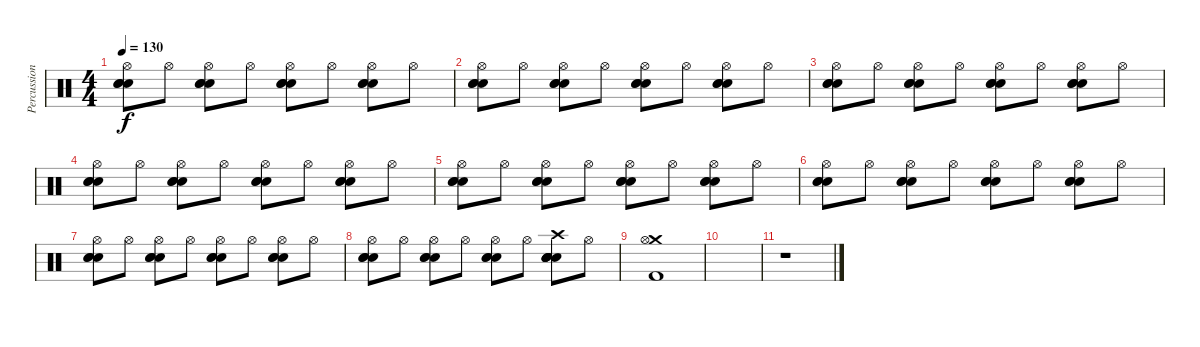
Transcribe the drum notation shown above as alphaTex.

\track ("Percussion" "Percussion") {instrument percussion}
\staff {score}
\articulation defaults
\ts (4 4)
\tempo 130
\clef neutral
\ks c
("Hi-Hat (open)" "Electric Snare (hit)" "Electric Snare (hit)" "Electric Snare (hit)").8{dy f} "Hi-Hat (open)".8 ("Hi-Hat (open)" "Electric Snare (hit)" "Electric Snare (hit)" "Electric Snare (hit)").8 "Hi-Hat (open)".8 ("Hi-Hat (open)" "Electric Snare (hit)" "Electric Snare (hit)" "Electric Snare (hit)").8 "Hi-Hat (open)".8 ("Hi-Hat (open)" "Electric Snare (hit)" "Electric Snare (hit)" "Electric Snare (hit)").8 "Hi-Hat (open)".8 |
("Hi-Hat (open)" "Electric Snare (hit)" "Electric Snare (hit)" "Electric Snare (hit)").8 "Hi-Hat (open)".8 ("Hi-Hat (open)" "Electric Snare (hit)" "Electric Snare (hit)" "Electric Snare (hit)").8 "Hi-Hat (open)".8 ("Hi-Hat (open)" "Electric Snare (hit)" "Electric Snare (hit)" "Electric Snare (hit)").8 "Hi-Hat (open)".8 ("Hi-Hat (open)" "Electric Snare (hit)" "Electric Snare (hit)" "Electric Snare (hit)").8 "Hi-Hat (open)".8 |
("Hi-Hat (open)" "Electric Snare (hit)" "Electric Snare (hit)" "Electric Snare (hit)").8 "Hi-Hat (open)".8 ("Hi-Hat (open)" "Electric Snare (hit)" "Electric Snare (hit)" "Electric Snare (hit)").8 "Hi-Hat (open)".8 ("Hi-Hat (open)" "Electric Snare (hit)" "Electric Snare (hit)" "Electric Snare (hit)").8 "Hi-Hat (open)".8 ("Hi-Hat (open)" "Electric Snare (hit)" "Electric Snare (hit)" "Electric Snare (hit)").8 "Hi-Hat (open)".8 |
("Hi-Hat (open)" "Electric Snare (hit)" "Electric Snare (hit)" "Electric Snare (hit)").8 "Hi-Hat (open)".8 ("Hi-Hat (open)" "Electric Snare (hit)" "Electric Snare (hit)" "Electric Snare (hit)").8 "Hi-Hat (open)".8 ("Hi-Hat (open)" "Electric Snare (hit)" "Electric Snare (hit)" "Electric Snare (hit)").8 "Hi-Hat (open)".8 ("Hi-Hat (open)" "Electric Snare (hit)" "Electric Snare (hit)" "Electric Snare (hit)").8 "Hi-Hat (open)".8 |
("Hi-Hat (open)" "Electric Snare (hit)" "Electric Snare (hit)" "Electric Snare (hit)").8 "Hi-Hat (open)".8 ("Hi-Hat (open)" "Electric Snare (hit)" "Electric Snare (hit)" "Electric Snare (hit)").8 "Hi-Hat (open)".8 ("Hi-Hat (open)" "Electric Snare (hit)" "Electric Snare (hit)" "Electric Snare (hit)").8 "Hi-Hat (open)".8 ("Hi-Hat (open)" "Electric Snare (hit)" "Electric Snare (hit)" "Electric Snare (hit)").8 "Hi-Hat (open)".8 |
("Hi-Hat (open)" "Electric Snare (hit)" "Electric Snare (hit)" "Electric Snare (hit)").8 "Hi-Hat (open)".8 ("Hi-Hat (open)" "Electric Snare (hit)" "Electric Snare (hit)" "Electric Snare (hit)").8 "Hi-Hat (open)".8 ("Hi-Hat (open)" "Electric Snare (hit)" "Electric Snare (hit)" "Electric Snare (hit)").8 "Hi-Hat (open)".8 ("Hi-Hat (open)" "Electric Snare (hit)" "Electric Snare (hit)" "Electric Snare (hit)").8 "Hi-Hat (open)".8 |
("Hi-Hat (open)" "Electric Snare (hit)" "Electric Snare (hit)" "Electric Snare (hit)").8 "Hi-Hat (open)".8 ("Hi-Hat (open)" "Electric Snare (hit)" "Electric Snare (hit)" "Electric Snare (hit)").8 "Hi-Hat (open)".8 ("Hi-Hat (open)" "Electric Snare (hit)" "Electric Snare (hit)" "Electric Snare (hit)").8 "Hi-Hat (open)".8 ("Hi-Hat (open)" "Electric Snare (hit)" "Electric Snare (hit)" "Electric Snare (hit)").8 "Hi-Hat (open)".8 |
("Hi-Hat (open)" "Electric Snare (hit)" "Electric Snare (hit)" "Electric Snare (hit)").8 "Hi-Hat (open)".8 ("Hi-Hat (open)" "Electric Snare (hit)" "Electric Snare (hit)" "Electric Snare (hit)").8 "Hi-Hat (open)".8 ("Hi-Hat (open)" "Electric Snare (hit)" "Electric Snare (hit)" "Electric Snare (hit)").8 "Hi-Hat (open)".8 ("Crash high (hit)" "Electric Snare (hit)" "Electric Snare (hit)" "Electric Snare (hit)" "Hand Clap (hit)" "Hand Clap (hit)").8 "Hi-Hat (open)".8 |
("Kick (hit) 2" "Crash medium (hit)" "Hi-Hat (open)").1 |
|
r.1
